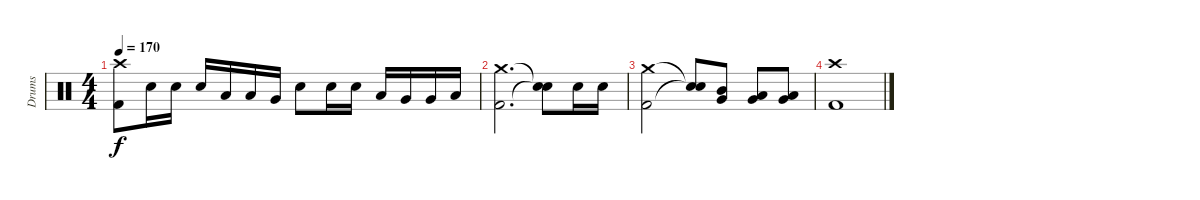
\track ("Drums" "Drums") {instrument percussion}
\staff {score}
\articulation defaults
\ts (4 4)
\tempo 170
\clef neutral
\ks c
("Crash high (hit)" "Kick (hit) 2").8{dy f} "Electric Snare (hit)".16 "Electric Snare (hit)".16 "Electric Snare (hit)".16 "Low Tom (hit)".16 "Low Tom (hit)".16 "Very Low Tom (hit)".16 "Electric Snare (hit)".8 "Electric Snare (hit)".16 "Electric Snare (hit)".16 "Low Tom (hit)".16 "Very Low Tom (hit)".16 "Very Low Tom (hit)".16 "Low Floor Tom (hit)".16 |
("Crash medium (hit)" "Kick (hit) 2").2{d} ("Snare (hit)"{t} "Snare (hit)"{t}).8 "Electric Snare (hit)".16 "Electric Snare (hit)".16 |
("Crash medium (hit)" "Kick (hit) 2").2 ("Snare (hit)"{t} "Snare (hit)"{t}).8 ("Very Low Tom (hit)" "Mid Tom (hit)").8 ("Very Low Tom (hit)" "Low Tom (hit)").8 ("Very Low Tom (hit)" "Low Floor Tom (hit)").8 |
("Crash high (hit)" "Kick (hit) 2").1
